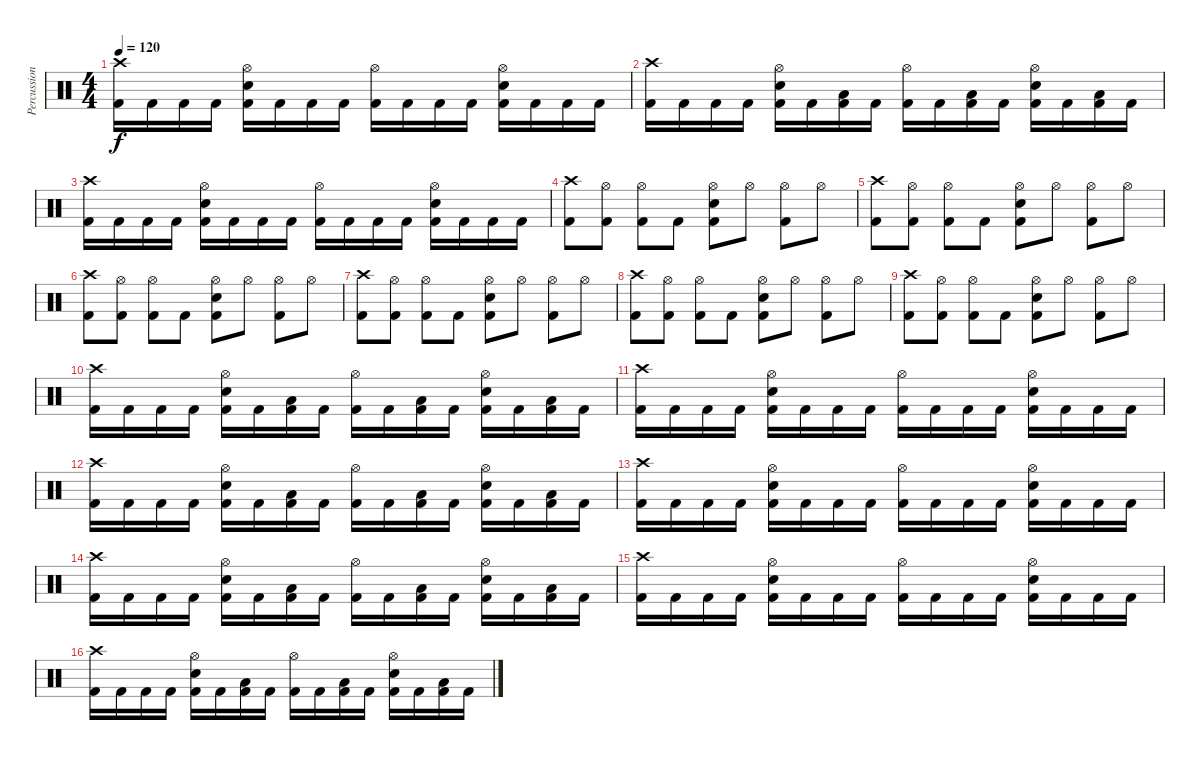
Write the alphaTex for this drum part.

\track ("Percussion" "Percussion") {instrument percussion}
\staff {score}
\articulation defaults
\ts (4 4)
\tempo 120
\clef neutral
\ks c
("Kick (hit) 2" "Crash high (hit)").16{dy f} "Kick (hit) 2".16 "Kick (hit) 2".16 "Kick (hit) 2".16 ("Kick (hit) 2" "Snare (hit) 2" "Hi-Hat (open)").16 "Kick (hit) 2".16 "Kick (hit) 2".16 "Kick (hit) 2".16 ("Kick (hit) 2" "Hi-Hat (open)").16 "Kick (hit) 2".16 "Kick (hit) 2".16 "Kick (hit) 2".16 ("Kick (hit) 2" "Snare (hit) 2" "Hi-Hat (open)").16 "Kick (hit) 2".16 "Kick (hit) 2".16 "Kick (hit) 2".16 |
("Kick (hit) 2" "Crash high (hit)").16 "Kick (hit) 2".16 "Kick (hit) 2".16 "Kick (hit) 2".16 ("Kick (hit) 2" "Snare (hit) 2" "Hi-Hat (open)").16 "Kick (hit) 2".16 ("Kick (hit) 2" "Low Tom (hit)").16 "Kick (hit) 2".16 ("Kick (hit) 2" "Hi-Hat (open)").16 "Kick (hit) 2".16 ("Kick (hit) 2" "Low Tom (hit)").16 "Kick (hit) 2".16 ("Kick (hit) 2" "Snare (hit) 2" "Hi-Hat (open)").16 "Kick (hit) 2".16 ("Kick (hit) 2" "Low Floor Tom (hit)").16 "Kick (hit) 2".16 |
("Kick (hit) 2" "Crash high (hit)").16 "Kick (hit) 2".16 "Kick (hit) 2".16 "Kick (hit) 2".16 ("Kick (hit) 2" "Snare (hit) 2" "Hi-Hat (open)").16 "Kick (hit) 2".16 "Kick (hit) 2".16 "Kick (hit) 2".16 ("Kick (hit) 2" "Hi-Hat (open)").16 "Kick (hit) 2".16 "Kick (hit) 2".16 "Kick (hit) 2".16 ("Kick (hit) 2" "Snare (hit) 2" "Hi-Hat (open)").16 "Kick (hit) 2".16 "Kick (hit) 2".16 "Kick (hit) 2".16 |
("Kick (hit) 2" "Crash high (hit)").8 ("Kick (hit) 2" "Hi-Hat (open)").8 ("Kick (hit) 2" "Hi-Hat (open)").8 "Kick (hit) 2".8 ("Kick (hit) 2" "Snare (hit) 2" "Hi-Hat (open)").8 "Hi-Hat (open)".8 ("Kick (hit) 2" "Hi-Hat (open)").8 "Hi-Hat (open)".8 |
("Kick (hit) 2" "Crash high (hit)").8 ("Kick (hit) 2" "Hi-Hat (open)").8 ("Kick (hit) 2" "Hi-Hat (open)").8 "Kick (hit) 2".8 ("Kick (hit) 2" "Snare (hit) 2" "Hi-Hat (open)").8 "Hi-Hat (open)".8 ("Kick (hit) 2" "Hi-Hat (open)").8 "Hi-Hat (open)".8 |
("Kick (hit) 2" "Crash high (hit)").8 ("Kick (hit) 2" "Hi-Hat (open)").8 ("Kick (hit) 2" "Hi-Hat (open)").8 "Kick (hit) 2".8 ("Kick (hit) 2" "Snare (hit) 2" "Hi-Hat (open)").8 "Hi-Hat (open)".8 ("Kick (hit) 2" "Hi-Hat (open)").8 "Hi-Hat (open)".8 |
("Kick (hit) 2" "Crash high (hit)").8 ("Kick (hit) 2" "Hi-Hat (open)").8 ("Kick (hit) 2" "Hi-Hat (open)").8 "Kick (hit) 2".8 ("Kick (hit) 2" "Snare (hit) 2" "Hi-Hat (open)").8 "Hi-Hat (open)".8 ("Kick (hit) 2" "Hi-Hat (open)").8 "Hi-Hat (open)".8 |
("Kick (hit) 2" "Crash high (hit)").8 ("Kick (hit) 2" "Hi-Hat (open)").8 ("Kick (hit) 2" "Hi-Hat (open)").8 "Kick (hit) 2".8 ("Kick (hit) 2" "Snare (hit) 2" "Hi-Hat (open)").8 "Hi-Hat (open)".8 ("Kick (hit) 2" "Hi-Hat (open)").8 "Hi-Hat (open)".8 |
("Kick (hit) 2" "Crash high (hit)").8 ("Kick (hit) 2" "Hi-Hat (open)").8 ("Kick (hit) 2" "Hi-Hat (open)").8 "Kick (hit) 2".8 ("Kick (hit) 2" "Snare (hit) 2" "Hi-Hat (open)").8 "Hi-Hat (open)".8 ("Kick (hit) 2" "Hi-Hat (open)").8 "Hi-Hat (open)".8 |
("Kick (hit) 2" "Crash high (hit)").16 "Kick (hit) 2".16 "Kick (hit) 2".16 "Kick (hit) 2".16 ("Kick (hit) 2" "Snare (hit) 2" "Hi-Hat (open)").16 "Kick (hit) 2".16 ("Kick (hit) 2" "Low Tom (hit)").16 "Kick (hit) 2".16 ("Kick (hit) 2" "Hi-Hat (open)").16 "Kick (hit) 2".16 ("Kick (hit) 2" "Low Tom (hit)").16 "Kick (hit) 2".16 ("Kick (hit) 2" "Snare (hit) 2" "Hi-Hat (open)").16 "Kick (hit) 2".16 ("Kick (hit) 2" "Low Floor Tom (hit)").16 "Kick (hit) 2".16 |
("Kick (hit) 2" "Crash high (hit)").16 "Kick (hit) 2".16 "Kick (hit) 2".16 "Kick (hit) 2".16 ("Kick (hit) 2" "Snare (hit) 2" "Hi-Hat (open)").16 "Kick (hit) 2".16 "Kick (hit) 2".16 "Kick (hit) 2".16 ("Kick (hit) 2" "Hi-Hat (open)").16 "Kick (hit) 2".16 "Kick (hit) 2".16 "Kick (hit) 2".16 ("Kick (hit) 2" "Snare (hit) 2" "Hi-Hat (open)").16 "Kick (hit) 2".16 "Kick (hit) 2".16 "Kick (hit) 2".16 |
("Kick (hit) 2" "Crash high (hit)").16 "Kick (hit) 2".16 "Kick (hit) 2".16 "Kick (hit) 2".16 ("Kick (hit) 2" "Snare (hit) 2" "Hi-Hat (open)").16 "Kick (hit) 2".16 ("Kick (hit) 2" "Low Tom (hit)").16 "Kick (hit) 2".16 ("Kick (hit) 2" "Hi-Hat (open)").16 "Kick (hit) 2".16 ("Kick (hit) 2" "Low Tom (hit)").16 "Kick (hit) 2".16 ("Kick (hit) 2" "Snare (hit) 2" "Hi-Hat (open)").16 "Kick (hit) 2".16 ("Kick (hit) 2" "Low Floor Tom (hit)").16 "Kick (hit) 2".16 |
("Kick (hit) 2" "Crash high (hit)").16 "Kick (hit) 2".16 "Kick (hit) 2".16 "Kick (hit) 2".16 ("Kick (hit) 2" "Snare (hit) 2" "Hi-Hat (open)").16 "Kick (hit) 2".16 "Kick (hit) 2".16 "Kick (hit) 2".16 ("Kick (hit) 2" "Hi-Hat (open)").16 "Kick (hit) 2".16 "Kick (hit) 2".16 "Kick (hit) 2".16 ("Kick (hit) 2" "Snare (hit) 2" "Hi-Hat (open)").16 "Kick (hit) 2".16 "Kick (hit) 2".16 "Kick (hit) 2".16 |
("Kick (hit) 2" "Crash high (hit)").16 "Kick (hit) 2".16 "Kick (hit) 2".16 "Kick (hit) 2".16 ("Kick (hit) 2" "Snare (hit) 2" "Hi-Hat (open)").16 "Kick (hit) 2".16 ("Kick (hit) 2" "Low Tom (hit)").16 "Kick (hit) 2".16 ("Kick (hit) 2" "Hi-Hat (open)").16 "Kick (hit) 2".16 ("Kick (hit) 2" "Low Tom (hit)").16 "Kick (hit) 2".16 ("Kick (hit) 2" "Snare (hit) 2" "Hi-Hat (open)").16 "Kick (hit) 2".16 ("Kick (hit) 2" "Low Floor Tom (hit)").16 "Kick (hit) 2".16 |
("Kick (hit) 2" "Crash high (hit)").16 "Kick (hit) 2".16 "Kick (hit) 2".16 "Kick (hit) 2".16 ("Kick (hit) 2" "Snare (hit) 2" "Hi-Hat (open)").16 "Kick (hit) 2".16 "Kick (hit) 2".16 "Kick (hit) 2".16 ("Kick (hit) 2" "Hi-Hat (open)").16 "Kick (hit) 2".16 "Kick (hit) 2".16 "Kick (hit) 2".16 ("Kick (hit) 2" "Snare (hit) 2" "Hi-Hat (open)").16 "Kick (hit) 2".16 "Kick (hit) 2".16 "Kick (hit) 2".16 |
("Kick (hit) 2" "Crash high (hit)").16 "Kick (hit) 2".16 "Kick (hit) 2".16 "Kick (hit) 2".16 ("Kick (hit) 2" "Snare (hit) 2" "Hi-Hat (open)").16 "Kick (hit) 2".16 ("Kick (hit) 2" "Low Tom (hit)").16 "Kick (hit) 2".16 ("Kick (hit) 2" "Hi-Hat (open)").16 "Kick (hit) 2".16 ("Kick (hit) 2" "Low Tom (hit)").16 "Kick (hit) 2".16 ("Kick (hit) 2" "Snare (hit) 2" "Hi-Hat (open)").16 "Kick (hit) 2".16 ("Kick (hit) 2" "Low Floor Tom (hit)").16 "Kick (hit) 2".16
